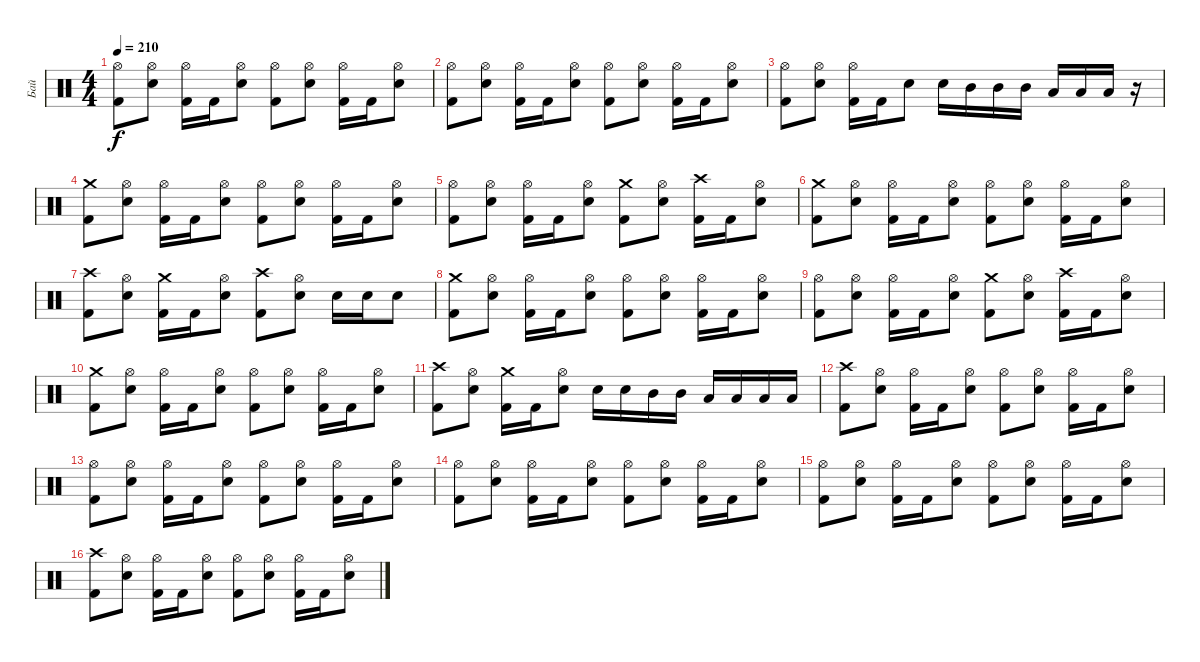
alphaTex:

\track ("Бай" "Бай") {instrument percussion}
\staff {score}
\articulation defaults
\ts (4 4)
\tempo 210
\clef neutral
\ks c
("Hi-Hat (open)" "Kick (hit) 2").8{dy f} ("Hi-Hat (open)" "Electric Snare (hit)").8 ("Hi-Hat (open)" "Kick (hit) 2").16 "Kick (hit) 2".16 ("Hi-Hat (open)" "Electric Snare (hit)").8 ("Hi-Hat (open)" "Kick (hit) 2").8 ("Hi-Hat (open)" "Electric Snare (hit)").8 ("Hi-Hat (open)" "Kick (hit) 2").16 "Kick (hit) 2".16 ("Hi-Hat (open)" "Electric Snare (hit)").8 |
("Hi-Hat (open)" "Kick (hit) 2").8 ("Hi-Hat (open)" "Electric Snare (hit)").8 ("Hi-Hat (open)" "Kick (hit) 2").16 "Kick (hit) 2".16 ("Hi-Hat (open)" "Electric Snare (hit)").8 ("Hi-Hat (open)" "Kick (hit) 2").8 ("Hi-Hat (open)" "Electric Snare (hit)").8 ("Hi-Hat (open)" "Kick (hit) 2").16 "Kick (hit) 2".16 ("Hi-Hat (open)" "Electric Snare (hit)").8 |
("Hi-Hat (open)" "Kick (hit) 2").8 ("Hi-Hat (open)" "Electric Snare (hit)").8 ("Hi-Hat (open)" "Kick (hit) 2").16 "Kick (hit) 2".16 "Electric Snare (hit)".8 "Electric Snare (hit)".16 "Mid Tom (hit)".16 "Mid Tom (hit)".16 "Mid Tom (hit)".16 "Low Tom (hit)".16 "Low Tom (hit)".16 "Low Tom (hit)".16 r.16 |
("Crash medium (hit)" "Kick (hit) 2").8 ("Hi-Hat (open)" "Electric Snare (hit)").8 ("Hi-Hat (open)" "Kick (hit) 2").16 "Kick (hit) 2".16 ("Hi-Hat (open)" "Electric Snare (hit)").8 ("Hi-Hat (open)" "Kick (hit) 2").8 ("Hi-Hat (open)" "Electric Snare (hit)").8 ("Hi-Hat (open)" "Kick (hit) 2").16 "Kick (hit) 2".16 ("Hi-Hat (open)" "Electric Snare (hit)").8 |
("Hi-Hat (open)" "Kick (hit) 2").8 ("Hi-Hat (open)" "Electric Snare (hit)").8 ("Hi-Hat (open)" "Kick (hit) 2").16 "Kick (hit) 2".16 ("Hi-Hat (open)" "Electric Snare (hit)").8 ("Crash medium (hit)" "Kick (hit) 2").8 ("Hi-Hat (open)" "Electric Snare (hit)").8 ("Crash high (hit)" "Kick (hit) 2").16 "Kick (hit) 2".16 ("Hi-Hat (open)" "Electric Snare (hit)").8 |
("Crash medium (hit)" "Kick (hit) 2").8 ("Hi-Hat (open)" "Electric Snare (hit)").8 ("Hi-Hat (open)" "Kick (hit) 2").16 "Kick (hit) 2".16 ("Hi-Hat (open)" "Electric Snare (hit)").8 ("Hi-Hat (open)" "Kick (hit) 2").8 ("Hi-Hat (open)" "Electric Snare (hit)").8 ("Hi-Hat (open)" "Kick (hit) 2").16 "Kick (hit) 2".16 ("Hi-Hat (open)" "Electric Snare (hit)").8 |
("Crash high (hit)" "Kick (hit) 2").8 ("Hi-Hat (open)" "Electric Snare (hit)").8 ("Crash medium (hit)" "Kick (hit) 2").16 "Kick (hit) 2".16 ("Hi-Hat (open)" "Electric Snare (hit)").8 ("Crash high (hit)" "Kick (hit) 2").8 ("Hi-Hat (open)" "Electric Snare (hit)").8 "Electric Snare (hit)".16 "Electric Snare (hit)".16 "Electric Snare (hit)".8 |
("Crash medium (hit)" "Kick (hit) 2").8 ("Hi-Hat (open)" "Electric Snare (hit)").8 ("Hi-Hat (open)" "Kick (hit) 2").16 "Kick (hit) 2".16 ("Hi-Hat (open)" "Electric Snare (hit)").8 ("Hi-Hat (open)" "Kick (hit) 2").8 ("Hi-Hat (open)" "Electric Snare (hit)").8 ("Hi-Hat (open)" "Kick (hit) 2").16 "Kick (hit) 2".16 ("Hi-Hat (open)" "Electric Snare (hit)").8 |
("Hi-Hat (open)" "Kick (hit) 2").8 ("Hi-Hat (open)" "Electric Snare (hit)").8 ("Hi-Hat (open)" "Kick (hit) 2").16 "Kick (hit) 2".16 ("Hi-Hat (open)" "Electric Snare (hit)").8 ("Crash medium (hit)" "Kick (hit) 2").8 ("Hi-Hat (open)" "Electric Snare (hit)").8 ("Crash high (hit)" "Kick (hit) 2").16 "Kick (hit) 2".16 ("Hi-Hat (open)" "Electric Snare (hit)").8 |
("Crash medium (hit)" "Kick (hit) 2").8 ("Hi-Hat (open)" "Electric Snare (hit)").8 ("Hi-Hat (open)" "Kick (hit) 2").16 "Kick (hit) 2".16 ("Hi-Hat (open)" "Electric Snare (hit)").8 ("Hi-Hat (open)" "Kick (hit) 2").8 ("Hi-Hat (open)" "Electric Snare (hit)").8 ("Hi-Hat (open)" "Kick (hit) 2").16 "Kick (hit) 2".16 ("Hi-Hat (open)" "Electric Snare (hit)").8 |
("Crash high (hit)" "Kick (hit) 2").8 ("Hi-Hat (open)" "Electric Snare (hit)").8 ("Crash medium (hit)" "Kick (hit) 2").16 "Kick (hit) 2".16 ("Hi-Hat (open)" "Electric Snare (hit)").8 "Electric Snare (hit)".16 "Electric Snare (hit)".16 "Mid Tom (hit)".16 "Mid Tom (hit)".16 "Low Tom (hit)".16 "Low Tom (hit)".16 "Low Floor Tom (hit)".16 "Low Floor Tom (hit)".16 |
("Crash high (hit)" "Kick (hit) 2").8 ("Hi-Hat (open)" "Electric Snare (hit)").8 ("Hi-Hat (open)" "Kick (hit) 2").16 "Kick (hit) 2".16 ("Hi-Hat (open)" "Electric Snare (hit)").8 ("Hi-Hat (open)" "Kick (hit) 2").8 ("Hi-Hat (open)" "Electric Snare (hit)").8 ("Hi-Hat (open)" "Kick (hit) 2").16 "Kick (hit) 2".16 ("Hi-Hat (open)" "Electric Snare (hit)").8 |
("Hi-Hat (open)" "Kick (hit) 2").8 ("Hi-Hat (open)" "Electric Snare (hit)").8 ("Hi-Hat (open)" "Kick (hit) 2").16 "Kick (hit) 2".16 ("Hi-Hat (open)" "Electric Snare (hit)").8 ("Hi-Hat (open)" "Kick (hit) 2").8 ("Hi-Hat (open)" "Electric Snare (hit)").8 ("Hi-Hat (open)" "Kick (hit) 2").16 "Kick (hit) 2".16 ("Hi-Hat (open)" "Electric Snare (hit)").8 |
("Hi-Hat (open)" "Kick (hit) 2").8 ("Hi-Hat (open)" "Electric Snare (hit)").8 ("Hi-Hat (open)" "Kick (hit) 2").16 "Kick (hit) 2".16 ("Hi-Hat (open)" "Electric Snare (hit)").8 ("Hi-Hat (open)" "Kick (hit) 2").8 ("Hi-Hat (open)" "Electric Snare (hit)").8 ("Hi-Hat (open)" "Kick (hit) 2").16 "Kick (hit) 2".16 ("Hi-Hat (open)" "Electric Snare (hit)").8 |
("Hi-Hat (open)" "Kick (hit) 2").8 ("Hi-Hat (open)" "Electric Snare (hit)").8 ("Hi-Hat (open)" "Kick (hit) 2").16 "Kick (hit) 2".16 ("Hi-Hat (open)" "Electric Snare (hit)").8 ("Hi-Hat (open)" "Kick (hit) 2").8 ("Hi-Hat (open)" "Electric Snare (hit)").8 ("Hi-Hat (open)" "Kick (hit) 2").16 "Kick (hit) 2".16 ("Hi-Hat (open)" "Electric Snare (hit)").8 |
("Crash high (hit)" "Kick (hit) 2").8 ("Hi-Hat (open)" "Electric Snare (hit)").8 ("Hi-Hat (open)" "Kick (hit) 2").16 "Kick (hit) 2".16 ("Hi-Hat (open)" "Electric Snare (hit)").8 ("Hi-Hat (open)" "Kick (hit) 2").8 ("Hi-Hat (open)" "Electric Snare (hit)").8 ("Hi-Hat (open)" "Kick (hit) 2").16 "Kick (hit) 2".16 ("Hi-Hat (open)" "Electric Snare (hit)").8
